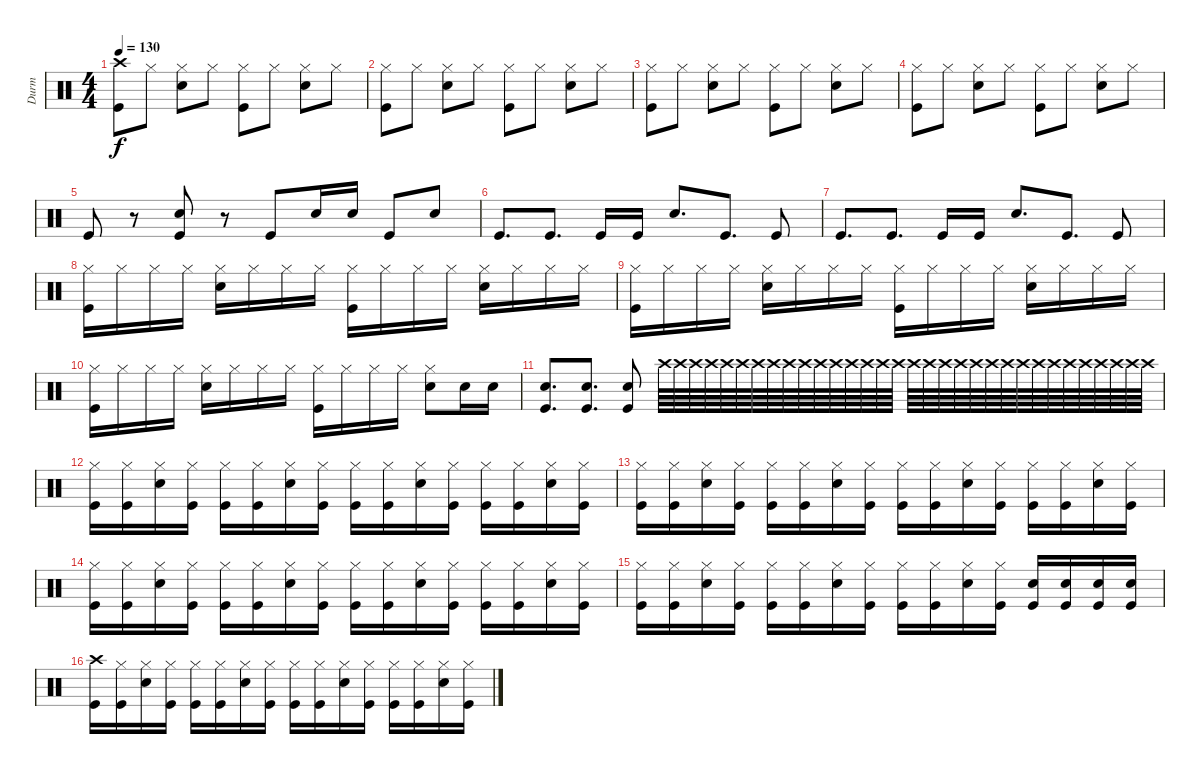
\track ("Durm" "Durm") {instrument percussion}
\staff {score}
\articulation defaults
\ts (4 4)
\tempo 130
\clef neutral
\ks c
("Crash high (hit)" "Kick (hit)").8{dy f} "Hi-Hat (closed)".8 ("Hi-Hat (closed)" "Electric Snare (hit)").8 "Hi-Hat (closed)".8 ("Hi-Hat (closed)" "Kick (hit)").8 "Hi-Hat (closed)".8 ("Hi-Hat (closed)" "Electric Snare (hit)").8 "Hi-Hat (closed)".8 |
("Hi-Hat (closed)" "Kick (hit)").8 "Hi-Hat (closed)".8 ("Hi-Hat (closed)" "Electric Snare (hit)").8 "Hi-Hat (closed)".8 ("Hi-Hat (closed)" "Kick (hit)").8 "Hi-Hat (closed)".8 ("Hi-Hat (closed)" "Electric Snare (hit)").8 "Hi-Hat (closed)".8 |
("Hi-Hat (closed)" "Kick (hit)").8 "Hi-Hat (closed)".8 ("Hi-Hat (closed)" "Electric Snare (hit)").8 "Hi-Hat (closed)".8 ("Hi-Hat (closed)" "Kick (hit)").8 "Hi-Hat (closed)".8 ("Hi-Hat (closed)" "Electric Snare (hit)").8 "Hi-Hat (closed)".8 |
("Hi-Hat (closed)" "Kick (hit)").8 "Hi-Hat (closed)".8 ("Hi-Hat (closed)" "Electric Snare (hit)").8 "Hi-Hat (closed)".8 ("Hi-Hat (closed)" "Kick (hit)").8 "Hi-Hat (closed)".8 ("Hi-Hat (closed)" "Electric Snare (hit)").8 "Hi-Hat (closed)".8 |
"Kick (hit)".8 r.8 ("Electric Snare (hit)" "Kick (hit)").8 r.8 "Kick (hit)".8 "Electric Snare (hit)".16 "Electric Snare (hit)".16 "Kick (hit)".8 "Electric Snare (hit)".8 |
"Kick (hit)".8{d} "Kick (hit)".8{d} "Kick (hit)".16 "Kick (hit)".16 "Electric Snare (hit)".8{d} "Kick (hit)".8{d} "Kick (hit)".8 |
"Kick (hit)".8{d} "Kick (hit)".8{d} "Kick (hit)".16 "Kick (hit)".16 "Electric Snare (hit)".8{d} "Kick (hit)".8{d} "Kick (hit)".8 |
("Hi-Hat (closed)" "Kick (hit)").16 "Hi-Hat (closed)".16 "Hi-Hat (closed)".16 "Hi-Hat (closed)".16 ("Hi-Hat (closed)" "Electric Snare (hit)").16 "Hi-Hat (closed)".16 "Hi-Hat (closed)".16 "Hi-Hat (closed)".16 ("Hi-Hat (closed)" "Kick (hit)").16 "Hi-Hat (closed)".16 "Hi-Hat (closed)".16 "Hi-Hat (closed)".16 ("Hi-Hat (closed)" "Electric Snare (hit)").16 "Hi-Hat (closed)".16 "Hi-Hat (closed)".16 "Hi-Hat (closed)".16 |
("Hi-Hat (closed)" "Kick (hit)").16 "Hi-Hat (closed)".16 "Hi-Hat (closed)".16 "Hi-Hat (closed)".16 ("Hi-Hat (closed)" "Electric Snare (hit)").16 "Hi-Hat (closed)".16 "Hi-Hat (closed)".16 "Hi-Hat (closed)".16 ("Hi-Hat (closed)" "Kick (hit)").16 "Hi-Hat (closed)".16 "Hi-Hat (closed)".16 "Hi-Hat (closed)".16 ("Hi-Hat (closed)" "Electric Snare (hit)").16 "Hi-Hat (closed)".16 "Hi-Hat (closed)".16 "Hi-Hat (closed)".16 |
("Hi-Hat (closed)" "Kick (hit)").16 "Hi-Hat (closed)".16 "Hi-Hat (closed)".16 "Hi-Hat (closed)".16 ("Hi-Hat (closed)" "Electric Snare (hit)").16 "Hi-Hat (closed)".16 "Hi-Hat (closed)".16 "Hi-Hat (closed)".16 ("Hi-Hat (closed)" "Kick (hit)").16 "Hi-Hat (closed)".16 "Hi-Hat (closed)".16 "Hi-Hat (closed)".16 ("Hi-Hat (closed)" "Electric Snare (hit)").8 "Electric Snare (hit)".16 "Electric Snare (hit)".16 |
("Electric Snare (hit)" "Kick (hit)").8{d} ("Electric Snare (hit)" "Kick (hit)").8{d} ("Electric Snare (hit)" "Kick (hit)").8 "Crash high (hit)".64{volume 0} "Crash high (hit)".64{volume 16} "Crash high (hit)".64 "Crash high (hit)".64 "Crash high (hit)".64 "Crash high (hit)".64 "Crash high (hit)".64 "Crash high (hit)".64 "Crash high (hit)".64 "Crash high (hit)".64 "Crash high (hit)".64 "Crash high (hit)".64 "Crash high (hit)".64 "Crash high (hit)".64 "Crash high (hit)".64 "Crash high (hit)".64 "Crash high (hit)".64 "Crash high (hit)".64 "Crash high (hit)".64 "Crash high (hit)".64 "Crash high (hit)".64 "Crash high (hit)".64 "Crash high (hit)".64 "Crash high (hit)".64 "Crash high (hit)".64 "Crash high (hit)".64 "Crash high (hit)".64 "Crash high (hit)".64 "Crash high (hit)".64 "Crash high (hit)".64 "Crash high (hit)".64 "Crash high (hit)".64{volume 16} |
("Hi-Hat (closed)" "Kick (hit)").16 ("Hi-Hat (closed)" "Kick (hit)").16 ("Hi-Hat (closed)" "Electric Snare (hit)").16 ("Hi-Hat (closed)" "Kick (hit)").16 ("Hi-Hat (closed)" "Kick (hit)").16 ("Hi-Hat (closed)" "Kick (hit)").16 ("Hi-Hat (closed)" "Electric Snare (hit)").16 ("Hi-Hat (closed)" "Kick (hit)").16 ("Hi-Hat (closed)" "Kick (hit)").16 ("Hi-Hat (closed)" "Kick (hit)").16 ("Hi-Hat (closed)" "Electric Snare (hit)").16 ("Hi-Hat (closed)" "Kick (hit)").16 ("Hi-Hat (closed)" "Kick (hit)").16 ("Hi-Hat (closed)" "Kick (hit)").16 ("Hi-Hat (closed)" "Electric Snare (hit)").16 ("Hi-Hat (closed)" "Kick (hit)").16 |
("Hi-Hat (closed)" "Kick (hit)").16 ("Hi-Hat (closed)" "Kick (hit)").16 ("Hi-Hat (closed)" "Electric Snare (hit)").16 ("Hi-Hat (closed)" "Kick (hit)").16 ("Hi-Hat (closed)" "Kick (hit)").16 ("Hi-Hat (closed)" "Kick (hit)").16 ("Hi-Hat (closed)" "Electric Snare (hit)").16 ("Hi-Hat (closed)" "Kick (hit)").16 ("Hi-Hat (closed)" "Kick (hit)").16 ("Hi-Hat (closed)" "Kick (hit)").16 ("Hi-Hat (closed)" "Electric Snare (hit)").16 ("Hi-Hat (closed)" "Kick (hit)").16 ("Hi-Hat (closed)" "Kick (hit)").16 ("Hi-Hat (closed)" "Kick (hit)").16 ("Hi-Hat (closed)" "Electric Snare (hit)").16 ("Hi-Hat (closed)" "Kick (hit)").16 |
("Hi-Hat (closed)" "Kick (hit)").16 ("Hi-Hat (closed)" "Kick (hit)").16 ("Hi-Hat (closed)" "Electric Snare (hit)").16 ("Hi-Hat (closed)" "Kick (hit)").16 ("Hi-Hat (closed)" "Kick (hit)").16 ("Hi-Hat (closed)" "Kick (hit)").16 ("Hi-Hat (closed)" "Electric Snare (hit)").16 ("Hi-Hat (closed)" "Kick (hit)").16 ("Hi-Hat (closed)" "Kick (hit)").16 ("Hi-Hat (closed)" "Kick (hit)").16 ("Hi-Hat (closed)" "Electric Snare (hit)").16 ("Hi-Hat (closed)" "Kick (hit)").16 ("Hi-Hat (closed)" "Kick (hit)").16 ("Hi-Hat (closed)" "Kick (hit)").16 ("Hi-Hat (closed)" "Electric Snare (hit)").16 ("Hi-Hat (closed)" "Kick (hit)").16 |
("Hi-Hat (closed)" "Kick (hit)").16 ("Hi-Hat (closed)" "Kick (hit)").16 ("Hi-Hat (closed)" "Electric Snare (hit)").16 ("Hi-Hat (closed)" "Kick (hit)").16 ("Hi-Hat (closed)" "Kick (hit)").16 ("Hi-Hat (closed)" "Kick (hit)").16 ("Hi-Hat (closed)" "Electric Snare (hit)").16 ("Hi-Hat (closed)" "Kick (hit)").16 ("Hi-Hat (closed)" "Kick (hit)").16 ("Hi-Hat (closed)" "Kick (hit)").16 ("Hi-Hat (closed)" "Electric Snare (hit)").16 ("Hi-Hat (closed)" "Kick (hit)").16 ("Electric Snare (hit)" "Kick (hit)").16 ("Electric Snare (hit)" "Kick (hit)").16 ("Electric Snare (hit)" "Kick (hit)").16 ("Electric Snare (hit)" "Kick (hit)").16 |
("Crash high (hit)" "Kick (hit)").16 ("Hi-Hat (closed)" "Kick (hit)").16 ("Hi-Hat (closed)" "Electric Snare (hit)").16 ("Hi-Hat (closed)" "Kick (hit)").16 ("Hi-Hat (closed)" "Kick (hit)").16 ("Hi-Hat (closed)" "Kick (hit)").16 ("Hi-Hat (closed)" "Electric Snare (hit)").16 ("Hi-Hat (closed)" "Kick (hit)").16 ("Hi-Hat (closed)" "Kick (hit)").16 ("Hi-Hat (closed)" "Kick (hit)").16 ("Hi-Hat (closed)" "Electric Snare (hit)").16 ("Hi-Hat (closed)" "Kick (hit)").16 ("Hi-Hat (closed)" "Kick (hit)").16 ("Hi-Hat (closed)" "Kick (hit)").16 ("Hi-Hat (closed)" "Electric Snare (hit)").16 ("Hi-Hat (closed)" "Kick (hit)").16
